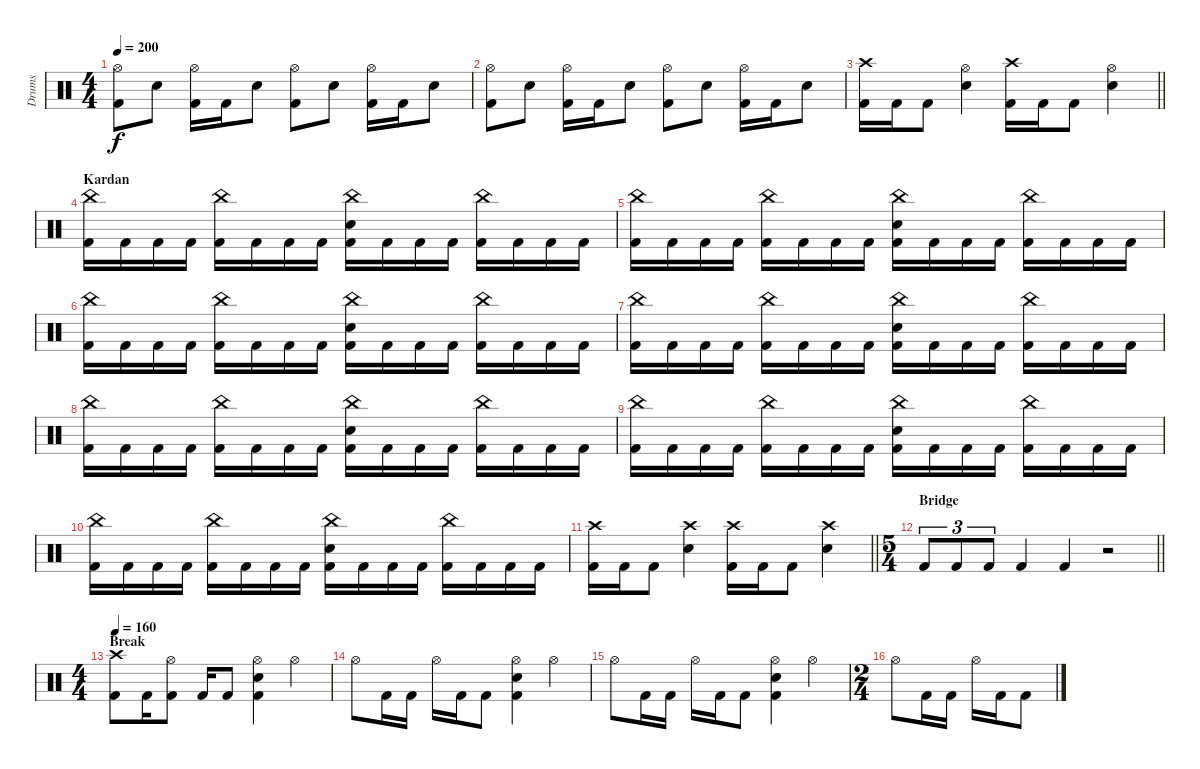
\track ("Drums" "Drums") {instrument percussion}
\staff {score}
\articulation defaults
\ts (4 4)
\tempo 200
\clef neutral
\ks c
("Hi-Hat (open)" "Kick (hit) 2").8{dy f} "Electric Snare (hit)".8 ("Hi-Hat (open)" "Kick (hit) 2").16 "Kick (hit) 2".16 "Electric Snare (hit)".8 ("Hi-Hat (open)" "Kick (hit) 2").8 "Electric Snare (hit)".8 ("Hi-Hat (open)" "Kick (hit) 2").16 "Kick (hit) 2".16 "Electric Snare (hit)".8 |
("Hi-Hat (open)" "Kick (hit) 2").8 "Electric Snare (hit)".8 ("Hi-Hat (open)" "Kick (hit) 2").16 "Kick (hit) 2".16 "Electric Snare (hit)".8 ("Hi-Hat (open)" "Kick (hit) 2").8 "Electric Snare (hit)".8 ("Hi-Hat (open)" "Kick (hit) 2").16 "Kick (hit) 2".16 "Electric Snare (hit)".8 |
\barLineRight lightlight
("Crash high (hit)" "Kick (hit) 2").16 "Kick (hit) 2".16 "Kick (hit) 2".8 ("Hi-Hat (open)" "Electric Snare (hit)").4 ("Crash high (hit)" "Kick (hit) 2").16 "Kick (hit) 2".16 "Kick (hit) 2".8 ("Hi-Hat (open)" "Electric Snare (hit)").4 |
\section ("" "Kardan")
("China (hit)" "Kick (hit) 2").16 "Kick (hit) 2".16 "Kick (hit) 2".16 "Kick (hit) 2".16 ("China (hit)" "Kick (hit) 2").16 "Kick (hit) 2".16 "Kick (hit) 2".16 "Kick (hit) 2".16 ("China (hit)" "Electric Snare (hit)" "Kick (hit) 2").16 "Kick (hit) 2".16 "Kick (hit) 2".16 "Kick (hit) 2".16 ("China (hit)" "Kick (hit) 2").16 "Kick (hit) 2".16 "Kick (hit) 2".16 "Kick (hit) 2".16 |
("China (hit)" "Kick (hit) 2").16 "Kick (hit) 2".16 "Kick (hit) 2".16 "Kick (hit) 2".16 ("China (hit)" "Kick (hit) 2").16 "Kick (hit) 2".16 "Kick (hit) 2".16 "Kick (hit) 2".16 ("China (hit)" "Electric Snare (hit)" "Kick (hit) 2").16 "Kick (hit) 2".16 "Kick (hit) 2".16 "Kick (hit) 2".16 ("China (hit)" "Kick (hit) 2").16 "Kick (hit) 2".16 "Kick (hit) 2".16 "Kick (hit) 2".16 |
("China (hit)" "Kick (hit) 2").16 "Kick (hit) 2".16 "Kick (hit) 2".16 "Kick (hit) 2".16 ("China (hit)" "Kick (hit) 2").16 "Kick (hit) 2".16 "Kick (hit) 2".16 "Kick (hit) 2".16 ("China (hit)" "Electric Snare (hit)" "Kick (hit) 2").16 "Kick (hit) 2".16 "Kick (hit) 2".16 "Kick (hit) 2".16 ("China (hit)" "Kick (hit) 2").16 "Kick (hit) 2".16 "Kick (hit) 2".16 "Kick (hit) 2".16 |
("China (hit)" "Kick (hit) 2").16 "Kick (hit) 2".16 "Kick (hit) 2".16 "Kick (hit) 2".16 ("China (hit)" "Kick (hit) 2").16 "Kick (hit) 2".16 "Kick (hit) 2".16 "Kick (hit) 2".16 ("China (hit)" "Electric Snare (hit)" "Kick (hit) 2").16 "Kick (hit) 2".16 "Kick (hit) 2".16 "Kick (hit) 2".16 ("China (hit)" "Kick (hit) 2").16 "Kick (hit) 2".16 "Kick (hit) 2".16 "Kick (hit) 2".16 |
("China (hit)" "Kick (hit) 2").16 "Kick (hit) 2".16 "Kick (hit) 2".16 "Kick (hit) 2".16 ("China (hit)" "Kick (hit) 2").16 "Kick (hit) 2".16 "Kick (hit) 2".16 "Kick (hit) 2".16 ("China (hit)" "Electric Snare (hit)" "Kick (hit) 2").16 "Kick (hit) 2".16 "Kick (hit) 2".16 "Kick (hit) 2".16 ("China (hit)" "Kick (hit) 2").16 "Kick (hit) 2".16 "Kick (hit) 2".16 "Kick (hit) 2".16 |
("China (hit)" "Kick (hit) 2").16 "Kick (hit) 2".16 "Kick (hit) 2".16 "Kick (hit) 2".16 ("China (hit)" "Kick (hit) 2").16 "Kick (hit) 2".16 "Kick (hit) 2".16 "Kick (hit) 2".16 ("China (hit)" "Electric Snare (hit)" "Kick (hit) 2").16 "Kick (hit) 2".16 "Kick (hit) 2".16 "Kick (hit) 2".16 ("China (hit)" "Kick (hit) 2").16 "Kick (hit) 2".16 "Kick (hit) 2".16 "Kick (hit) 2".16 |
("China (hit)" "Kick (hit) 2").16 "Kick (hit) 2".16 "Kick (hit) 2".16 "Kick (hit) 2".16 ("China (hit)" "Kick (hit) 2").16 "Kick (hit) 2".16 "Kick (hit) 2".16 "Kick (hit) 2".16 ("China (hit)" "Electric Snare (hit)" "Kick (hit) 2").16 "Kick (hit) 2".16 "Kick (hit) 2".16 "Kick (hit) 2".16 ("China (hit)" "Kick (hit) 2").16 "Kick (hit) 2".16 "Kick (hit) 2".16 "Kick (hit) 2".16 |
\barLineRight lightlight
("Crash high (hit)" "Kick (hit) 2").16 "Kick (hit) 2".16 "Kick (hit) 2".8 ("Crash high (hit)" "Electric Snare (hit)").4 ("Crash high (hit)" "Kick (hit) 2").16 "Kick (hit) 2".16 "Kick (hit) 2".8 ("Crash high (hit)" "Electric Snare (hit)").4 |
\ts (5 4)
\section ("" "Bridge")
\barLineRight lightlight "Kick (hit) 2".8{tu (3 2)} "Kick (hit) 2".8{tu (3 2)} "Kick (hit) 2".8{tu (3 2)} "Kick (hit) 2".4 "Kick (hit) 2".4
r.2 |
\ts (4 4)
\section ("" "Break")
\tempo 160
("Crash high (hit)" "Kick (hit) 2").8 "Kick (hit) 2".16 ("Hi-Hat (open)" "Kick (hit) 2").8 "Kick (hit) 2".16 "Kick (hit) 2".8 ("Hi-Hat (open)" "Electric Snare (hit)" "Kick (hit) 2").4 "Hi-Hat (open)".4 |
"Hi-Hat (open)".8 "Kick (hit) 2".16 "Kick (hit) 2".16 "Hi-Hat (open)".16 "Kick (hit) 2".16 "Kick (hit) 2".8 ("Hi-Hat (open)" "Electric Snare (hit)" "Kick (hit) 2").4 "Hi-Hat (open)".4 |
"Hi-Hat (open)".8 "Kick (hit) 2".16 "Kick (hit) 2".16 "Hi-Hat (open)".16 "Kick (hit) 2".16 "Kick (hit) 2".8 ("Hi-Hat (open)" "Electric Snare (hit)" "Kick (hit) 2").4 "Hi-Hat (open)".4 |
\ts (2 4)
"Hi-Hat (open)".8 "Kick (hit) 2".16 "Kick (hit) 2".16 "Hi-Hat (open)".16 "Kick (hit) 2".16 "Kick (hit) 2".8
